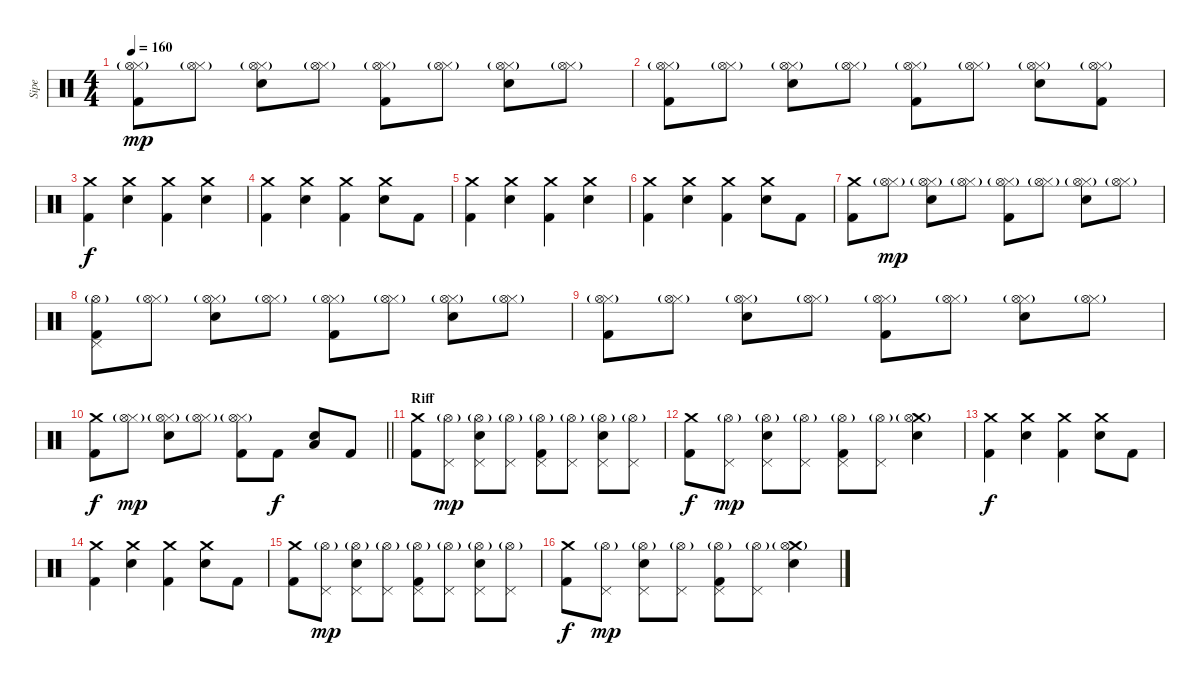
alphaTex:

\track ("Sipe" "Sipe") {instrument percussion}
\staff {score}
\articulation defaults
\ts (4 4)
\tempo 160
\clef neutral
\ks c
("Hi-Hat (closed)" "Kick (hit) 2" "Hi-Hat (open)"{g}).8{dy mp} ("Hi-Hat (closed)" "Hi-Hat (open)"{g}).8 ("Hi-Hat (closed)" "Snare (hit) 2" "Hi-Hat (open)"{g}).8 ("Hi-Hat (closed)" "Hi-Hat (open)"{g}).8 ("Hi-Hat (closed)" "Kick (hit) 2" "Hi-Hat (open)"{g}).8 ("Hi-Hat (closed)" "Hi-Hat (open)"{g}).8 ("Hi-Hat (closed)" "Snare (hit) 2" "Hi-Hat (open)"{g}).8 ("Hi-Hat (closed)" "Hi-Hat (open)"{g}).8 |
("Hi-Hat (closed)" "Kick (hit) 2" "Hi-Hat (open)"{g}).8 ("Hi-Hat (closed)" "Hi-Hat (open)"{g}).8 ("Hi-Hat (closed)" "Snare (hit) 2" "Hi-Hat (open)"{g}).8 ("Hi-Hat (closed)" "Hi-Hat (open)"{g}).8 ("Hi-Hat (closed)" "Kick (hit) 2" "Hi-Hat (open)"{g}).8 ("Hi-Hat (closed)" "Hi-Hat (open)"{g}).8 ("Hi-Hat (closed)" "Snare (hit) 2" "Hi-Hat (open)"{g}).8 ("Hi-Hat (closed)" "Kick (hit) 2" "Hi-Hat (open)"{g}).8 |
("Crash medium (hit)" "Kick (hit) 2").4{dy f} ("Crash medium (hit)" "Snare (hit) 2").4 ("Crash medium (hit)" "Kick (hit) 2").4 ("Crash medium (hit)" "Snare (hit) 2").4 |
("Crash medium (hit)" "Kick (hit) 2").4 ("Crash medium (hit)" "Snare (hit) 2").4 ("Crash medium (hit)" "Kick (hit) 2").4 ("Crash medium (hit)" "Snare (hit) 2").8 "Kick (hit) 2".8 |
("Crash medium (hit)" "Kick (hit) 2").4 ("Crash medium (hit)" "Snare (hit) 2").4 ("Crash medium (hit)" "Kick (hit) 2").4 ("Crash medium (hit)" "Snare (hit) 2").4 |
("Crash medium (hit)" "Kick (hit) 2").4 ("Crash medium (hit)" "Snare (hit) 2").4 ("Crash medium (hit)" "Kick (hit) 2").4 ("Crash medium (hit)" "Snare (hit) 2").8 "Kick (hit) 2".8 |
("Crash medium (hit)" "Kick (hit) 2").8 ("Hi-Hat (closed)" "Hi-Hat (open)"{g}).8{dy mp} ("Hi-Hat (closed)" "Snare (hit) 2" "Hi-Hat (open)"{g}).8 ("Hi-Hat (closed)" "Hi-Hat (open)"{g}).8 ("Hi-Hat (closed)" "Kick (hit) 2" "Hi-Hat (open)"{g}).8 ("Hi-Hat (closed)" "Hi-Hat (open)"{g}).8 ("Hi-Hat (closed)" "Snare (hit) 2" "Hi-Hat (open)"{g}).8 ("Hi-Hat (closed)" "Hi-Hat (open)"{g}).8 |
("Pedal Hi-Hat (hit)" "Kick (hit) 2" "Hi-Hat (open)"{g}).8 ("Hi-Hat (closed)" "Hi-Hat (open)"{g}).8 ("Hi-Hat (closed)" "Snare (hit) 2" "Hi-Hat (open)"{g}).8 ("Hi-Hat (closed)" "Hi-Hat (open)"{g}).8 ("Hi-Hat (closed)" "Kick (hit) 2" "Hi-Hat (open)"{g}).8 ("Hi-Hat (closed)" "Hi-Hat (open)"{g}).8 ("Hi-Hat (closed)" "Snare (hit) 2" "Hi-Hat (open)"{g}).8 ("Hi-Hat (closed)" "Hi-Hat (open)"{g}).8 |
("Hi-Hat (closed)" "Kick (hit) 2" "Hi-Hat (open)"{g}).8 ("Hi-Hat (closed)" "Hi-Hat (open)"{g}).8 ("Hi-Hat (closed)" "Snare (hit) 2" "Hi-Hat (open)"{g}).8 ("Hi-Hat (closed)" "Hi-Hat (open)"{g}).8 ("Hi-Hat (closed)" "Kick (hit) 2" "Hi-Hat (open)"{g}).8 ("Hi-Hat (closed)" "Hi-Hat (open)"{g}).8 ("Hi-Hat (closed)" "Snare (hit) 2" "Hi-Hat (open)"{g}).8 ("Hi-Hat (closed)" "Hi-Hat (open)"{g}).8 |
\barLineRight lightlight
("Crash medium (hit)" "Kick (hit) 2").8{dy f} ("Hi-Hat (closed)" "Hi-Hat (open)"{g}).8{dy mp} ("Hi-Hat (closed)" "Snare (hit) 2" "Hi-Hat (open)"{g}).8 ("Hi-Hat (closed)" "Hi-Hat (open)"{g}).8 ("Hi-Hat (closed)" "Kick (hit) 2" "Hi-Hat (open)"{g}).8 "Kick (hit) 2".8{dy f} ("Low Floor Tom (hit)" "Snare (hit) 2").8 "Kick (hit) 2".8 |
\section ("" "Riff")
("Crash medium (hit)" "Kick (hit) 2").8 ("Pedal Hi-Hat (hit)" "Hi-Hat (open)"{g}).8{dy mp} ("Pedal Hi-Hat (hit)" "Snare (hit) 2" "Hi-Hat (open)"{g}).8 ("Pedal Hi-Hat (hit)" "Hi-Hat (open)"{g}).8 ("Pedal Hi-Hat (hit)" "Kick (hit) 2" "Hi-Hat (open)"{g}).8 ("Pedal Hi-Hat (hit)" "Hi-Hat (open)"{g}).8 ("Pedal Hi-Hat (hit)" "Snare (hit) 2" "Hi-Hat (open)"{g}).8 ("Pedal Hi-Hat (hit)" "Hi-Hat (open)"{g}).8 |
("Crash medium (hit)" "Kick (hit) 2").8{dy f} ("Pedal Hi-Hat (hit)" "Hi-Hat (open)"{g}).8{dy mp} ("Pedal Hi-Hat (hit)" "Snare (hit) 2" "Hi-Hat (open)"{g}).8 ("Pedal Hi-Hat (hit)" "Hi-Hat (open)"{g}).8 ("Pedal Hi-Hat (hit)" "Kick (hit) 2" "Hi-Hat (open)"{g}).8 ("Pedal Hi-Hat (hit)" "Hi-Hat (open)"{g}).8 ("Crash medium (hit)" "Snare (hit) 2" "Hi-Hat (open)"{g}).4 |
("Crash medium (hit)" "Kick (hit) 2").4{dy f} ("Crash medium (hit)" "Snare (hit) 2").4 ("Crash medium (hit)" "Kick (hit) 2").4 ("Crash medium (hit)" "Snare (hit) 2").8 "Kick (hit) 2".8 |
("Crash medium (hit)" "Kick (hit) 2").4 ("Crash medium (hit)" "Snare (hit) 2").4 ("Crash medium (hit)" "Kick (hit) 2").4 ("Crash medium (hit)" "Snare (hit) 2").8 "Kick (hit) 2".8 |
("Crash medium (hit)" "Kick (hit) 2").8 ("Pedal Hi-Hat (hit)" "Hi-Hat (open)"{g}).8{dy mp} ("Pedal Hi-Hat (hit)" "Snare (hit) 2" "Hi-Hat (open)"{g}).8 ("Pedal Hi-Hat (hit)" "Hi-Hat (open)"{g}).8 ("Pedal Hi-Hat (hit)" "Kick (hit) 2" "Hi-Hat (open)"{g}).8 ("Pedal Hi-Hat (hit)" "Hi-Hat (open)"{g}).8 ("Pedal Hi-Hat (hit)" "Snare (hit) 2" "Hi-Hat (open)"{g}).8 ("Pedal Hi-Hat (hit)" "Hi-Hat (open)"{g}).8 |
("Crash medium (hit)" "Kick (hit) 2").8{dy f} ("Pedal Hi-Hat (hit)" "Hi-Hat (open)"{g}).8{dy mp} ("Pedal Hi-Hat (hit)" "Snare (hit) 2" "Hi-Hat (open)"{g}).8 ("Pedal Hi-Hat (hit)" "Hi-Hat (open)"{g}).8 ("Pedal Hi-Hat (hit)" "Kick (hit) 2" "Hi-Hat (open)"{g}).8 ("Pedal Hi-Hat (hit)" "Hi-Hat (open)"{g}).8 ("Crash medium (hit)" "Snare (hit) 2" "Hi-Hat (open)"{g}).4
